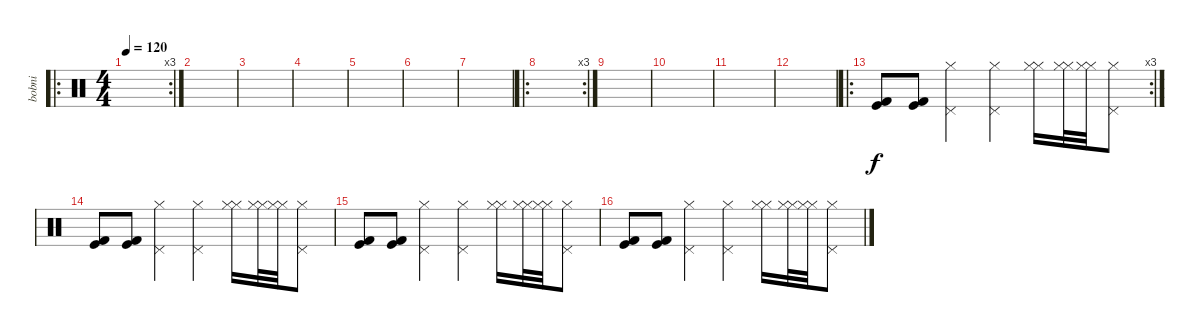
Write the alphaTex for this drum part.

\track ("bobni" "bobni") {instrument percussion}
\staff {score}
\articulation defaults
\ro
\rc 3
\ts (4 4)
\tempo 120
\clef neutral
\ks c
|
|
|
|
|
|
|
\ro
\rc 3
|
|
|
|
|
\ro
\rc 3
("Kick (hit) 2" "Kick (hit)").8 ("Kick (hit) 2" "Kick (hit)").8 ("Pedal Hi-Hat (hit)" "Hi-Hat (closed)").4 ("Pedal Hi-Hat (hit)" "Hi-Hat (closed)").4 ("Hi-Hat (closed)" "Hi-Hat (closed)").16 ("Hi-Hat (closed)" "Hi-Hat (closed)").32 ("Hi-Hat (closed)" "Hi-Hat (closed)").32 ("Pedal Hi-Hat (hit)" "Hi-Hat (closed)").8 |
("Kick (hit) 2" "Kick (hit)").8 ("Kick (hit) 2" "Kick (hit)").8 ("Pedal Hi-Hat (hit)" "Hi-Hat (closed)").4 ("Pedal Hi-Hat (hit)" "Hi-Hat (closed)").4 ("Hi-Hat (closed)" "Hi-Hat (closed)").16 ("Hi-Hat (closed)" "Hi-Hat (closed)").32 ("Hi-Hat (closed)" "Hi-Hat (closed)").32 ("Pedal Hi-Hat (hit)" "Hi-Hat (closed)").8 |
("Kick (hit) 2" "Kick (hit)").8 ("Kick (hit) 2" "Kick (hit)").8 ("Pedal Hi-Hat (hit)" "Hi-Hat (closed)").4 ("Pedal Hi-Hat (hit)" "Hi-Hat (closed)").4 ("Hi-Hat (closed)" "Hi-Hat (closed)").16 ("Hi-Hat (closed)" "Hi-Hat (closed)").32 ("Hi-Hat (closed)" "Hi-Hat (closed)").32 ("Pedal Hi-Hat (hit)" "Hi-Hat (closed)").8 |
("Kick (hit) 2" "Kick (hit)").8 ("Kick (hit) 2" "Kick (hit)").8 ("Pedal Hi-Hat (hit)" "Hi-Hat (closed)").4 ("Pedal Hi-Hat (hit)" "Hi-Hat (closed)").4 ("Hi-Hat (closed)" "Hi-Hat (closed)").16 ("Hi-Hat (closed)" "Hi-Hat (closed)").32 ("Hi-Hat (closed)" "Hi-Hat (closed)").32 ("Pedal Hi-Hat (hit)" "Hi-Hat (closed)").8
